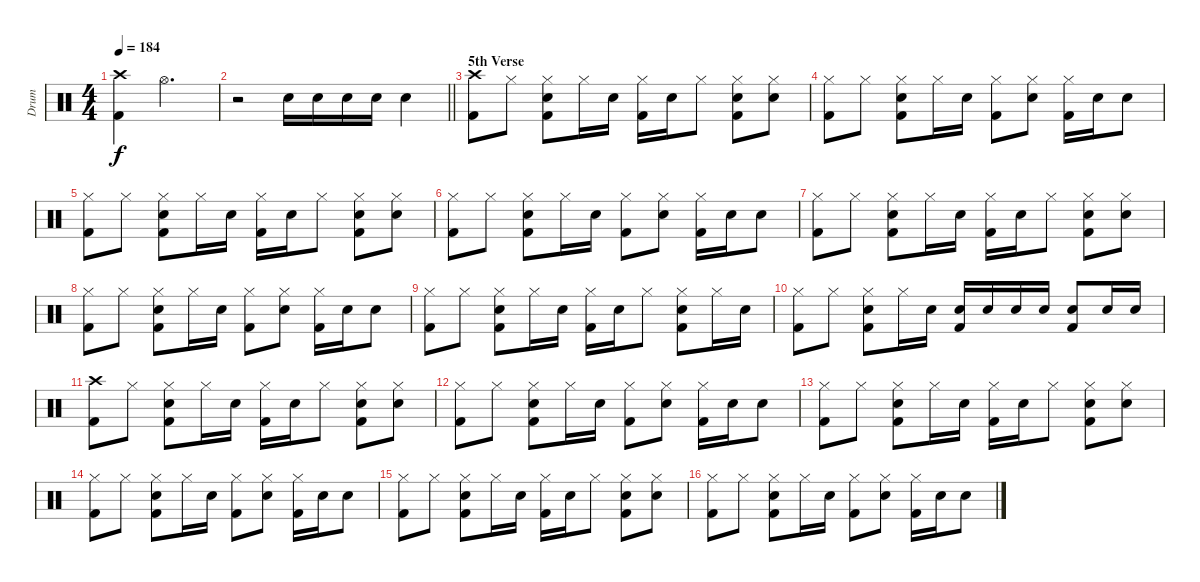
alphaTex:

\track ("Drum" "Drum") {instrument percussion}
\staff {score}
\articulation defaults
\ts (4 4)
\tempo 184
\clef neutral
\ks c
("Crash high (hit)" "Kick (hit) 2").4{dy f} "Hi-Hat (open)".2{d} |
\barLineRight lightlight
r.2 "Electric Snare (hit)".16 "Electric Snare (hit)".16 "Electric Snare (hit)".16 "Electric Snare (hit)".16 "Electric Snare (hit)".4 |
\section ("" "5th Verse")
("Crash high (hit)" "Kick (hit) 2").8 "Hi-Hat (closed)".8 ("Hi-Hat (closed)" "Electric Snare (hit)" "Kick (hit) 2").8 "Hi-Hat (closed)".16 "Electric Snare (hit)".16 ("Hi-Hat (closed)" "Kick (hit) 2").16 "Electric Snare (hit)".16 "Hi-Hat (closed)".8 ("Hi-Hat (closed)" "Electric Snare (hit)" "Kick (hit) 2").8 ("Hi-Hat (closed)" "Electric Snare (hit)").8 |
("Hi-Hat (closed)" "Kick (hit) 2").8 "Hi-Hat (closed)".8 ("Hi-Hat (closed)" "Electric Snare (hit)" "Kick (hit) 2").8 "Hi-Hat (closed)".16 "Electric Snare (hit)".16 ("Hi-Hat (closed)" "Kick (hit) 2").8 ("Hi-Hat (closed)" "Electric Snare (hit)").8 ("Hi-Hat (closed)" "Kick (hit) 2").16 "Electric Snare (hit)".16 "Electric Snare (hit)".8 |
("Hi-Hat (closed)" "Kick (hit) 2").8 "Hi-Hat (closed)".8 ("Hi-Hat (closed)" "Electric Snare (hit)" "Kick (hit) 2").8 "Hi-Hat (closed)".16 "Electric Snare (hit)".16 ("Hi-Hat (closed)" "Kick (hit) 2").16 "Electric Snare (hit)".16 "Hi-Hat (closed)".8 ("Hi-Hat (closed)" "Electric Snare (hit)" "Kick (hit) 2").8 ("Hi-Hat (closed)" "Electric Snare (hit)").8 |
("Hi-Hat (closed)" "Kick (hit) 2").8 "Hi-Hat (closed)".8 ("Hi-Hat (closed)" "Electric Snare (hit)" "Kick (hit) 2").8 "Hi-Hat (closed)".16 "Electric Snare (hit)".16 ("Hi-Hat (closed)" "Kick (hit) 2").8 ("Hi-Hat (closed)" "Electric Snare (hit)").8 ("Hi-Hat (closed)" "Kick (hit) 2").16 "Electric Snare (hit)".16 "Electric Snare (hit)".8 |
("Hi-Hat (closed)" "Kick (hit) 2").8 "Hi-Hat (closed)".8 ("Hi-Hat (closed)" "Electric Snare (hit)" "Kick (hit) 2").8 "Hi-Hat (closed)".16 "Electric Snare (hit)".16 ("Hi-Hat (closed)" "Kick (hit) 2").16 "Electric Snare (hit)".16 "Hi-Hat (closed)".8 ("Hi-Hat (closed)" "Electric Snare (hit)" "Kick (hit) 2").8 ("Hi-Hat (closed)" "Electric Snare (hit)").8 |
("Hi-Hat (closed)" "Kick (hit) 2").8 "Hi-Hat (closed)".8 ("Hi-Hat (closed)" "Electric Snare (hit)" "Kick (hit) 2").8 "Hi-Hat (closed)".16 "Electric Snare (hit)".16 ("Hi-Hat (closed)" "Kick (hit) 2").8 ("Hi-Hat (closed)" "Electric Snare (hit)").8 ("Hi-Hat (closed)" "Kick (hit) 2").16 "Electric Snare (hit)".16 "Electric Snare (hit)".8 |
("Hi-Hat (closed)" "Kick (hit) 2").8 "Hi-Hat (closed)".8 ("Hi-Hat (closed)" "Electric Snare (hit)" "Kick (hit) 2").8 "Hi-Hat (closed)".16 "Electric Snare (hit)".16 ("Hi-Hat (closed)" "Kick (hit) 2").16 "Electric Snare (hit)".16 "Hi-Hat (closed)".8 ("Hi-Hat (closed)" "Electric Snare (hit)" "Kick (hit) 2").8 "Hi-Hat (closed)".16 "Electric Snare (hit)".16 |
("Hi-Hat (closed)" "Kick (hit) 2").8 "Hi-Hat (closed)".8 ("Hi-Hat (closed)" "Electric Snare (hit)" "Kick (hit) 2").8 "Hi-Hat (closed)".16 "Electric Snare (hit)".16 ("Electric Snare (hit)" "Kick (hit) 2").16 "Electric Snare (hit)".16 "Electric Snare (hit)".16 "Electric Snare (hit)".16 ("Electric Snare (hit)" "Kick (hit) 2").8 "Electric Snare (hit)".16 "Electric Snare (hit)".16 |
("Crash high (hit)" "Kick (hit) 2").8 "Hi-Hat (closed)".8 ("Hi-Hat (closed)" "Electric Snare (hit)" "Kick (hit) 2").8 "Hi-Hat (closed)".16 "Electric Snare (hit)".16 ("Hi-Hat (closed)" "Kick (hit) 2").16 "Electric Snare (hit)".16 "Hi-Hat (closed)".8 ("Hi-Hat (closed)" "Electric Snare (hit)" "Kick (hit) 2").8 ("Hi-Hat (closed)" "Electric Snare (hit)").8 |
("Hi-Hat (closed)" "Kick (hit) 2").8 "Hi-Hat (closed)".8 ("Hi-Hat (closed)" "Electric Snare (hit)" "Kick (hit) 2").8 "Hi-Hat (closed)".16 "Electric Snare (hit)".16 ("Hi-Hat (closed)" "Kick (hit) 2").8 ("Hi-Hat (closed)" "Electric Snare (hit)").8 ("Hi-Hat (closed)" "Kick (hit) 2").16 "Electric Snare (hit)".16 "Electric Snare (hit)".8 |
("Hi-Hat (closed)" "Kick (hit) 2").8 "Hi-Hat (closed)".8 ("Hi-Hat (closed)" "Electric Snare (hit)" "Kick (hit) 2").8 "Hi-Hat (closed)".16 "Electric Snare (hit)".16 ("Hi-Hat (closed)" "Kick (hit) 2").16 "Electric Snare (hit)".16 "Hi-Hat (closed)".8 ("Hi-Hat (closed)" "Electric Snare (hit)" "Kick (hit) 2").8 ("Hi-Hat (closed)" "Electric Snare (hit)").8 |
("Hi-Hat (closed)" "Kick (hit) 2").8 "Hi-Hat (closed)".8 ("Hi-Hat (closed)" "Electric Snare (hit)" "Kick (hit) 2").8 "Hi-Hat (closed)".16 "Electric Snare (hit)".16 ("Hi-Hat (closed)" "Kick (hit) 2").8 ("Hi-Hat (closed)" "Electric Snare (hit)").8 ("Hi-Hat (closed)" "Kick (hit) 2").16 "Electric Snare (hit)".16 "Electric Snare (hit)".8 |
("Hi-Hat (closed)" "Kick (hit) 2").8 "Hi-Hat (closed)".8 ("Hi-Hat (closed)" "Electric Snare (hit)" "Kick (hit) 2").8 "Hi-Hat (closed)".16 "Electric Snare (hit)".16 ("Hi-Hat (closed)" "Kick (hit) 2").16 "Electric Snare (hit)".16 "Hi-Hat (closed)".8 ("Hi-Hat (closed)" "Electric Snare (hit)" "Kick (hit) 2").8 ("Hi-Hat (closed)" "Electric Snare (hit)").8 |
("Hi-Hat (closed)" "Kick (hit) 2").8 "Hi-Hat (closed)".8 ("Hi-Hat (closed)" "Electric Snare (hit)" "Kick (hit) 2").8 "Hi-Hat (closed)".16 "Electric Snare (hit)".16 ("Hi-Hat (closed)" "Kick (hit) 2").8 ("Hi-Hat (closed)" "Electric Snare (hit)").8 ("Hi-Hat (closed)" "Kick (hit) 2").16 "Electric Snare (hit)".16 "Electric Snare (hit)".8
